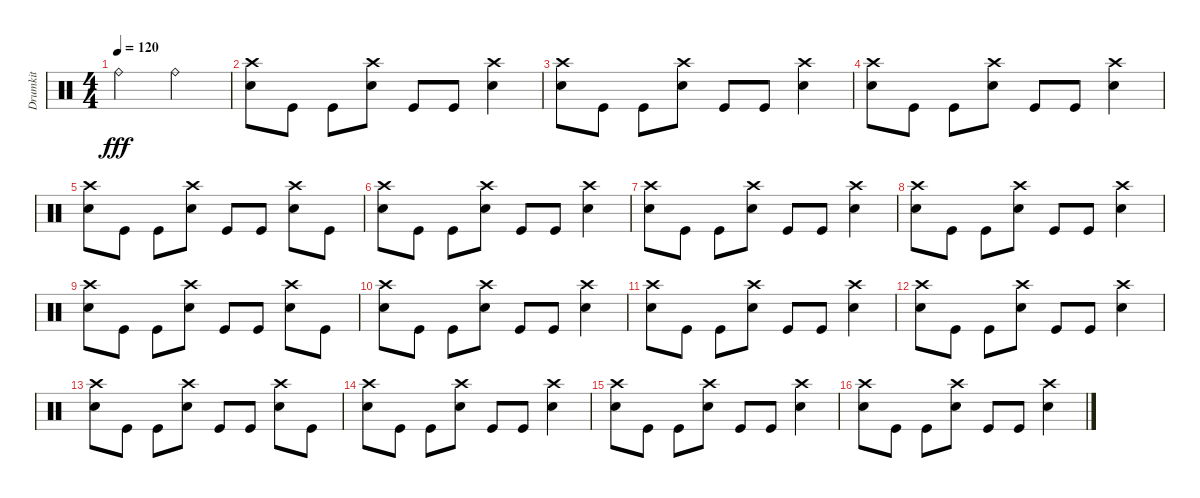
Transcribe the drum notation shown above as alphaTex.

\track ("Drumkit" "Drumkit") {instrument percussion}
\staff {score}
\articulation defaults
\ts (4 4)
\tempo 120
\clef neutral
\ks c "Ride (bell)".2{dy fff} "Ride (bell)".2
|
("Snare (hit) 2" "Crash high (hit)").8 "Kick (hit)".8 "Kick (hit)".8 ("Snare (hit) 2" "Crash high (hit)").8 "Kick (hit)".8 "Kick (hit)".8 ("Snare (hit) 2" "Crash high (hit)").4 |
("Snare (hit) 2" "Crash high (hit)").8 "Kick (hit)".8 "Kick (hit)".8 ("Snare (hit) 2" "Crash high (hit)").8 "Kick (hit)".8 "Kick (hit)".8 ("Snare (hit) 2" "Crash high (hit)").4 |
("Snare (hit) 2" "Crash high (hit)").8 "Kick (hit)".8 "Kick (hit)".8 ("Snare (hit) 2" "Crash high (hit)").8 "Kick (hit)".8 "Kick (hit)".8 ("Snare (hit) 2" "Crash high (hit)").4 |
("Snare (hit) 2" "Crash high (hit)").8 "Kick (hit)".8 "Kick (hit)".8 ("Snare (hit) 2" "Crash high (hit)").8 "Kick (hit)".8 "Kick (hit)".8 ("Snare (hit) 2" "Crash high (hit)").8 "Kick (hit)".8 |
("Snare (hit) 2" "Crash high (hit)").8 "Kick (hit)".8 "Kick (hit)".8 ("Snare (hit) 2" "Crash high (hit)").8 "Kick (hit)".8 "Kick (hit)".8 ("Snare (hit) 2" "Crash high (hit)").4 |
("Snare (hit) 2" "Crash high (hit)").8 "Kick (hit)".8 "Kick (hit)".8 ("Snare (hit) 2" "Crash high (hit)").8 "Kick (hit)".8 "Kick (hit)".8 ("Snare (hit) 2" "Crash high (hit)").4 |
("Snare (hit) 2" "Crash high (hit)").8 "Kick (hit)".8 "Kick (hit)".8 ("Snare (hit) 2" "Crash high (hit)").8 "Kick (hit)".8 "Kick (hit)".8 ("Snare (hit) 2" "Crash high (hit)").4 |
("Snare (hit) 2" "Crash high (hit)").8 "Kick (hit)".8 "Kick (hit)".8 ("Snare (hit) 2" "Crash high (hit)").8 "Kick (hit)".8 "Kick (hit)".8 ("Snare (hit) 2" "Crash high (hit)").8 "Kick (hit)".8 |
("Snare (hit) 2" "Crash high (hit)").8 "Kick (hit)".8 "Kick (hit)".8 ("Snare (hit) 2" "Crash high (hit)").8 "Kick (hit)".8 "Kick (hit)".8 ("Snare (hit) 2" "Crash high (hit)").4 |
("Snare (hit) 2" "Crash high (hit)").8 "Kick (hit)".8 "Kick (hit)".8 ("Snare (hit) 2" "Crash high (hit)").8 "Kick (hit)".8 "Kick (hit)".8 ("Snare (hit) 2" "Crash high (hit)").4 |
("Snare (hit) 2" "Crash high (hit)").8 "Kick (hit)".8 "Kick (hit)".8 ("Snare (hit) 2" "Crash high (hit)").8 "Kick (hit)".8 "Kick (hit)".8 ("Snare (hit) 2" "Crash high (hit)").4 |
("Snare (hit) 2" "Crash high (hit)").8 "Kick (hit)".8 "Kick (hit)".8 ("Snare (hit) 2" "Crash high (hit)").8 "Kick (hit)".8 "Kick (hit)".8 ("Snare (hit) 2" "Crash high (hit)").8 "Kick (hit)".8 |
("Snare (hit) 2" "Crash high (hit)").8 "Kick (hit)".8 "Kick (hit)".8 ("Snare (hit) 2" "Crash high (hit)").8 "Kick (hit)".8 "Kick (hit)".8 ("Snare (hit) 2" "Crash high (hit)").4 |
("Snare (hit) 2" "Crash high (hit)").8 "Kick (hit)".8 "Kick (hit)".8 ("Snare (hit) 2" "Crash high (hit)").8 "Kick (hit)".8 "Kick (hit)".8 ("Snare (hit) 2" "Crash high (hit)").4 |
("Snare (hit) 2" "Crash high (hit)").8 "Kick (hit)".8 "Kick (hit)".8 ("Snare (hit) 2" "Crash high (hit)").8 "Kick (hit)".8 "Kick (hit)".8 ("Snare (hit) 2" "Crash high (hit)").4
